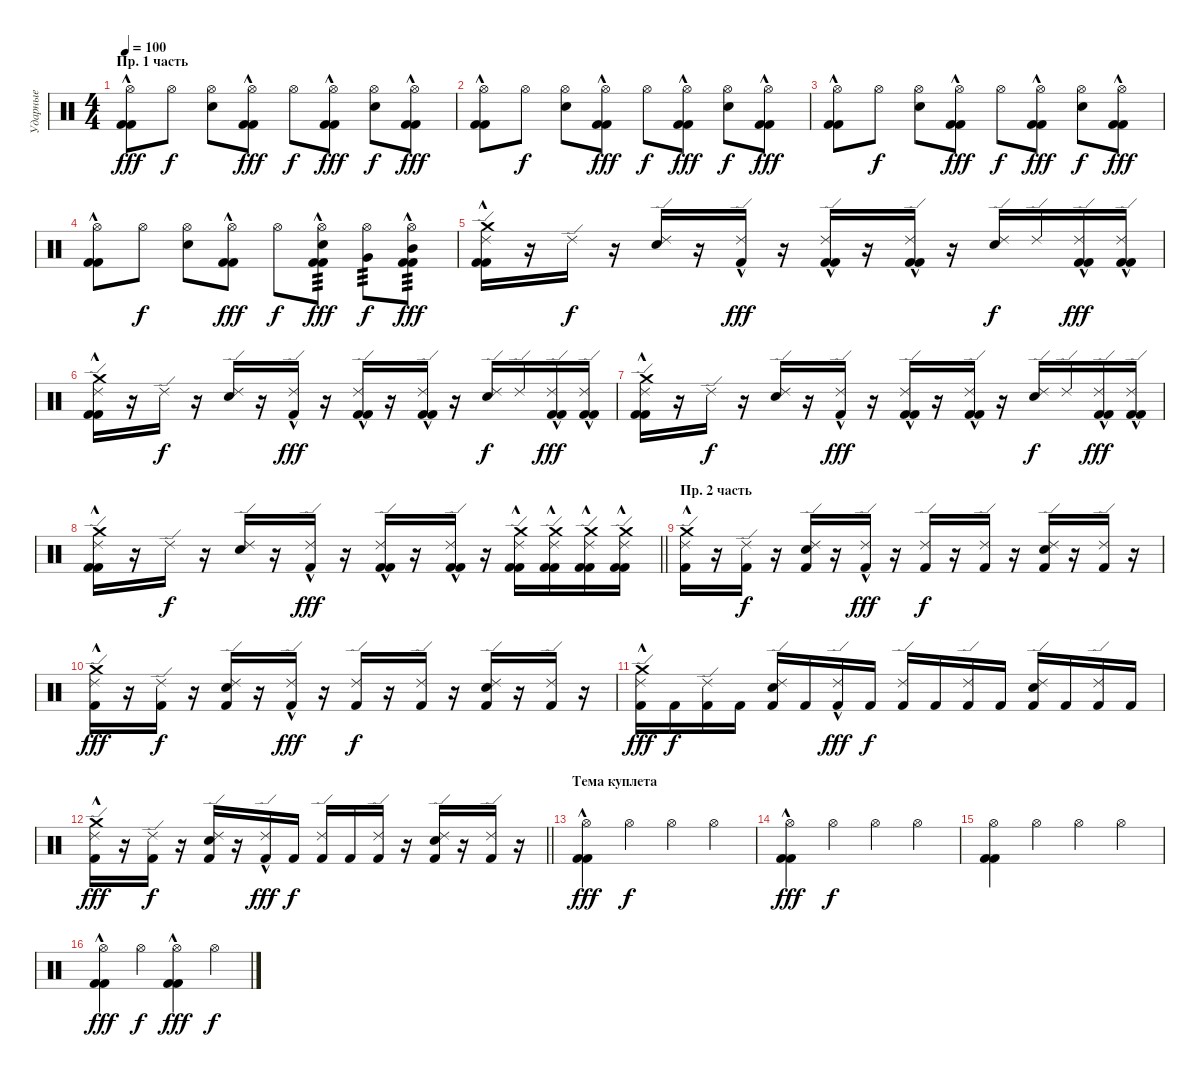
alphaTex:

\track ("Ударные" "Ударные") {instrument percussion}
\staff {score}
\articulation defaults
\ts (4 4)
\section ("" "Пр. 1 часть")
\tempo 100
\clef neutral
\ks c
("Kick (hit) 2"{hac} "Hi-Hat (open)" "Kick (hit) 2").8{dy fff} "Hi-Hat (open)".8{dy f} ("Hi-Hat (open)" "Snare (hit) 2").8 ("Hi-Hat (open)" "Kick (hit) 2"{hac} "Kick (hit) 2").8{dy fff} "Hi-Hat (open)".8{dy f} ("Hi-Hat (open)" "Kick (hit) 2"{hac} "Kick (hit) 2").8{dy fff} ("Hi-Hat (open)" "Snare (hit) 2").8{dy f} ("Hi-Hat (open)" "Kick (hit) 2"{hac} "Kick (hit) 2").8{dy fff} |
("Kick (hit) 2"{hac} "Hi-Hat (open)" "Kick (hit) 2").8 "Hi-Hat (open)".8{dy f} ("Hi-Hat (open)" "Snare (hit) 2").8 ("Hi-Hat (open)" "Kick (hit) 2"{hac} "Kick (hit) 2").8{dy fff} "Hi-Hat (open)".8{dy f} ("Hi-Hat (open)" "Kick (hit) 2"{hac} "Kick (hit) 2").8{dy fff} ("Hi-Hat (open)" "Snare (hit) 2").8{dy f} ("Hi-Hat (open)" "Kick (hit) 2"{hac} "Kick (hit) 2").8{dy fff} |
("Kick (hit) 2"{hac} "Hi-Hat (open)" "Kick (hit) 2").8 "Hi-Hat (open)".8{dy f} ("Hi-Hat (open)" "Snare (hit) 2").8 ("Hi-Hat (open)" "Kick (hit) 2"{hac} "Kick (hit) 2").8{dy fff} "Hi-Hat (open)".8{dy f} ("Hi-Hat (open)" "Kick (hit) 2"{hac} "Kick (hit) 2").8{dy fff} ("Hi-Hat (open)" "Snare (hit) 2").8{dy f} ("Hi-Hat (open)" "Kick (hit) 2"{hac} "Kick (hit) 2").8{dy fff} |
("Kick (hit) 2"{hac} "Hi-Hat (open)" "Kick (hit) 2").8 "Hi-Hat (open)".8{dy f} ("Hi-Hat (open)" "Snare (hit) 2").8 ("Hi-Hat (open)" "Kick (hit) 2"{hac} "Kick (hit) 2").8{dy fff} "Hi-Hat (open)".8{dy f} ("Hi-Hat (open)" "Kick (hit) 2"{hac} "Kick (hit) 2" "Electric Snare (hit)").8{tp 3 dy fff} ("Hi-Hat (open)" "Very Low Tom (hit)").8{tp 3 dy f} ("Hi-Hat (open)" "Kick (hit) 2"{hac} "Kick (hit) 2" "Mid Tom (hit)").8{tp 3 dy fff} |
("Ride (edge) 2" "Kick (hit) 2"{hac} "Crash medium (hit)" "Kick (hit) 2").16 r.16 "Ride (edge) 2".16{dy f} r.16 ("Ride (edge) 2" "Snare (hit) 2").16 r.16 ("Ride (edge) 2" "Kick (hit) 2"{hac}).16{dy fff} r.16 ("Ride (edge) 2" "Kick (hit) 2"{hac} "Kick (hit) 2").16 r.16 ("Ride (edge) 2" "Kick (hit) 2"{hac} "Kick (hit) 2").16 r.16 ("Ride (edge) 2" "Snare (hit) 2").16{dy f} "Ride (edge) 2".16 ("Ride (edge) 2" "Kick (hit) 2"{hac} "Kick (hit) 2").16{dy fff} ("Ride (edge) 2" "Kick (hit) 2"{hac} "Kick (hit) 2").16 |
("Ride (edge) 2" "Kick (hit) 2"{hac} "Crash medium (hit)" "Kick (hit) 2").16 r.16 "Ride (edge) 2".16{dy f} r.16 ("Ride (edge) 2" "Snare (hit) 2").16 r.16 ("Ride (edge) 2" "Kick (hit) 2"{hac}).16{dy fff} r.16 ("Ride (edge) 2" "Kick (hit) 2"{hac} "Kick (hit) 2").16 r.16 ("Ride (edge) 2" "Kick (hit) 2"{hac} "Kick (hit) 2").16 r.16 ("Ride (edge) 2" "Snare (hit) 2").16{dy f} "Ride (edge) 2".16 ("Ride (edge) 2" "Kick (hit) 2"{hac} "Kick (hit) 2").16{dy fff} ("Ride (edge) 2" "Kick (hit) 2"{hac} "Kick (hit) 2").16 |
("Ride (edge) 2" "Kick (hit) 2"{hac} "Crash medium (hit)" "Kick (hit) 2").16 r.16 "Ride (edge) 2".16{dy f} r.16 ("Ride (edge) 2" "Snare (hit) 2").16 r.16 ("Ride (edge) 2" "Kick (hit) 2"{hac}).16{dy fff} r.16 ("Ride (edge) 2" "Kick (hit) 2"{hac} "Kick (hit) 2").16 r.16 ("Ride (edge) 2" "Kick (hit) 2"{hac} "Kick (hit) 2").16 r.16 ("Ride (edge) 2" "Snare (hit) 2").16{dy f} "Ride (edge) 2".16 ("Ride (edge) 2" "Kick (hit) 2"{hac} "Kick (hit) 2").16{dy fff} ("Ride (edge) 2" "Kick (hit) 2"{hac} "Kick (hit) 2").16 |
\barLineRight lightlight
("Ride (edge) 2" "Kick (hit) 2"{hac} "Crash medium (hit)" "Kick (hit) 2").16 r.16 "Ride (edge) 2".16{dy f} r.16 ("Ride (edge) 2" "Snare (hit) 2").16 r.16 ("Ride (edge) 2" "Kick (hit) 2"{hac}).16{dy fff} r.16 ("Ride (edge) 2" "Kick (hit) 2"{hac} "Kick (hit) 2").16 r.16 ("Ride (edge) 2" "Kick (hit) 2"{hac} "Kick (hit) 2").16 r.16 ("Ride (edge) 2" "Kick (hit) 2"{hac} "Crash medium (hit)" "Kick (hit) 2").16 ("Ride (edge) 2" "Kick (hit) 2"{hac} "Crash medium (hit)" "Kick (hit) 2").16 ("Ride (edge) 2" "Kick (hit) 2"{hac} "Crash medium (hit)" "Kick (hit) 2").16 ("Ride (edge) 2" "Kick (hit) 2"{hac} "Crash medium (hit)" "Kick (hit) 2").16 |
\section ("" "Пр. 2 часть")
("Ride (edge) 2" "Crash medium (hit)" "Kick (hit) 2"{hac}).16 r.16 ("Ride (edge) 2" "Kick (hit) 2").16{dy f} r.16 ("Ride (edge) 2" "Snare (hit) 2" "Kick (hit) 2").16 r.16 ("Ride (edge) 2" "Kick (hit) 2"{hac}).16{dy fff} r.16 ("Ride (edge) 2" "Kick (hit) 2").16{dy f} r.16 ("Ride (edge) 2" "Kick (hit) 2").16 r.16 ("Ride (edge) 2" "Snare (hit) 2" "Kick (hit) 2").16 r.16 ("Ride (edge) 2" "Kick (hit) 2").16 r.16 |
("Ride (edge) 2" "Crash medium (hit)" "Kick (hit) 2"{hac}).16{dy fff} r.16 ("Ride (edge) 2" "Kick (hit) 2").16{dy f} r.16 ("Ride (edge) 2" "Snare (hit) 2" "Kick (hit) 2").16 r.16 ("Ride (edge) 2" "Kick (hit) 2"{hac}).16{dy fff} r.16 ("Ride (edge) 2" "Kick (hit) 2").16{dy f} r.16 ("Ride (edge) 2" "Kick (hit) 2").16 r.16 ("Ride (edge) 2" "Snare (hit) 2" "Kick (hit) 2").16 r.16 ("Ride (edge) 2" "Kick (hit) 2").16 r.16 |
("Ride (edge) 2" "Crash medium (hit)" "Kick (hit) 2"{hac}).16{dy fff} "Kick (hit) 2".16{dy f} ("Ride (edge) 2" "Kick (hit) 2").16 "Kick (hit) 2".16 ("Ride (edge) 2" "Snare (hit) 2" "Kick (hit) 2").16 "Kick (hit) 2".16 ("Ride (edge) 2" "Kick (hit) 2"{hac}).16{dy fff} "Kick (hit) 2".16{dy f} ("Ride (edge) 2" "Kick (hit) 2").16 "Kick (hit) 2".16 ("Ride (edge) 2" "Kick (hit) 2").16 "Kick (hit) 2".16 ("Ride (edge) 2" "Snare (hit) 2" "Kick (hit) 2").16 "Kick (hit) 2".16 ("Ride (edge) 2" "Kick (hit) 2").16 "Kick (hit) 2".16 |
\barLineRight lightlight
("Ride (edge) 2" "Crash medium (hit)" "Kick (hit) 2"{hac}).16{dy fff} r.16 ("Ride (edge) 2" "Kick (hit) 2").16{dy f} r.16 ("Ride (edge) 2" "Snare (hit) 2" "Kick (hit) 2").16 r.16 ("Ride (edge) 2" "Kick (hit) 2"{hac}).16{dy fff} "Kick (hit) 2".16{dy f} ("Ride (edge) 2" "Kick (hit) 2").16 "Kick (hit) 2".16 ("Ride (edge) 2" "Kick (hit) 2").16 r.16 ("Ride (edge) 2" "Snare (hit) 2" "Kick (hit) 2").16 r.16 ("Ride (edge) 2" "Kick (hit) 2").16 r.16 |
\section ("" "Тема куплета")
("Hi-Hat (open)" "Kick (hit) 2"{hac} "Kick (hit) 2").4{dy fff} "Hi-Hat (open)".4{dy f} "Hi-Hat (open)".4 "Hi-Hat (open)".4 |
("Hi-Hat (open)" "Kick (hit) 2"{hac} "Kick (hit) 2").4{dy fff} "Hi-Hat (open)".4{dy f} "Hi-Hat (open)".4 "Hi-Hat (open)".4 |
("Hi-Hat (open)" "Kick (hit) 2" "Kick (hit) 2").4 "Hi-Hat (open)".4 "Hi-Hat (open)".4 "Hi-Hat (open)".4 |
("Hi-Hat (open)" "Kick (hit) 2"{hac} "Kick (hit) 2").4{dy fff} "Hi-Hat (open)".4{dy f} ("Hi-Hat (open)" "Kick (hit) 2"{hac} "Kick (hit) 2").4{dy fff} "Hi-Hat (open)".4{dy f}
